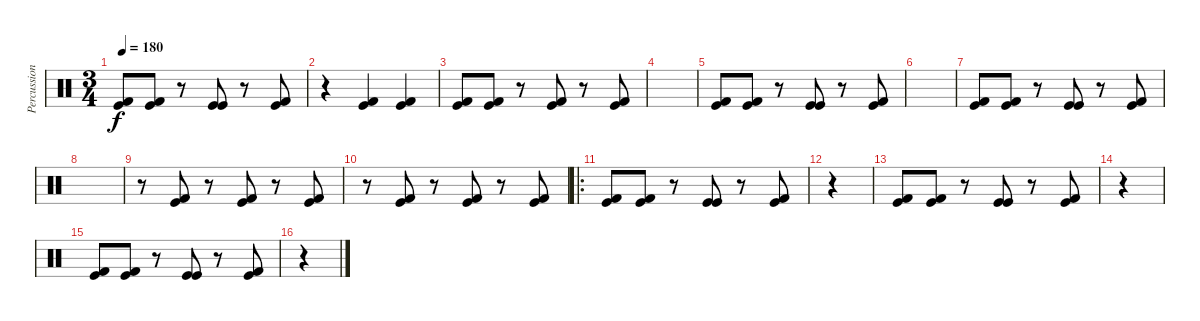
\track ("Percussion" "Percussion") {instrument percussion}
\staff {score}
\articulation defaults
\ts (3 4)
\tempo 180
\clef neutral
\ks c
("Kick (hit) 2" "Kick (hit)").8{dy f} ("Kick (hit) 2" "Kick (hit)").8 r.8 ("Kick (hit)" "Kick (hit)").8 r.8 ("Kick (hit) 2" "Kick (hit)").8 |
r.4 ("Kick (hit) 2" "Kick (hit)").4 ("Kick (hit) 2" "Kick (hit)").4 |
("Kick (hit) 2" "Kick (hit)").8 ("Kick (hit) 2" "Kick (hit)").8 r.8 ("Kick (hit) 2" "Kick (hit)").8 r.8 ("Kick (hit) 2" "Kick (hit)").8 |
|
("Kick (hit) 2" "Kick (hit)").8 ("Kick (hit) 2" "Kick (hit)").8 r.8 ("Kick (hit)" "Kick (hit)").8 r.8 ("Kick (hit) 2" "Kick (hit)").8 |
|
("Kick (hit) 2" "Kick (hit)").8 ("Kick (hit) 2" "Kick (hit)").8 r.8 ("Kick (hit)" "Kick (hit)").8 r.8 ("Kick (hit) 2" "Kick (hit)").8 |
|
r.8 ("Kick (hit) 2" "Kick (hit)").8 r.8 ("Kick (hit) 2" "Kick (hit)").8 r.8 ("Kick (hit) 2" "Kick (hit)").8 |
r.8 ("Kick (hit) 2" "Kick (hit)").8 r.8 ("Kick (hit) 2" "Kick (hit)").8 r.8 ("Kick (hit) 2" "Kick (hit)").8 |
\ro
("Kick (hit) 2" "Kick (hit)").8 ("Kick (hit) 2" "Kick (hit)").8 r.8 ("Kick (hit)" "Kick (hit)").8 r.8 ("Kick (hit) 2" "Kick (hit)").8 |
r.4 |
("Kick (hit) 2" "Kick (hit)").8 ("Kick (hit) 2" "Kick (hit)").8 r.8 ("Kick (hit)" "Kick (hit)").8 r.8 ("Kick (hit) 2" "Kick (hit)").8 |
r.4 |
("Kick (hit) 2" "Kick (hit)").8 ("Kick (hit) 2" "Kick (hit)").8 r.8 ("Kick (hit)" "Kick (hit)").8 r.8 ("Kick (hit) 2" "Kick (hit)").8 |
r.4
